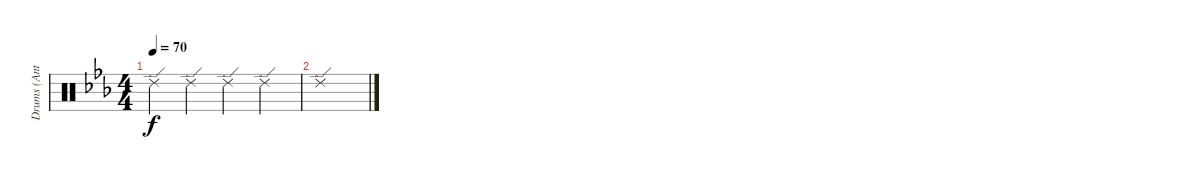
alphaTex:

\track ("Drums (Antoine)" "Drums (Ant") {instrument percussion}
\staff {score}
\articulation defaults
\ts (4 4)
\tempo 70
\clef neutral
\ks eb "Ride (edge) 2".4{dy f} "Ride (edge) 2".4 "Ride (edge) 2".4 "Ride (edge) 2".4
|
"Ride (edge) 2".1
